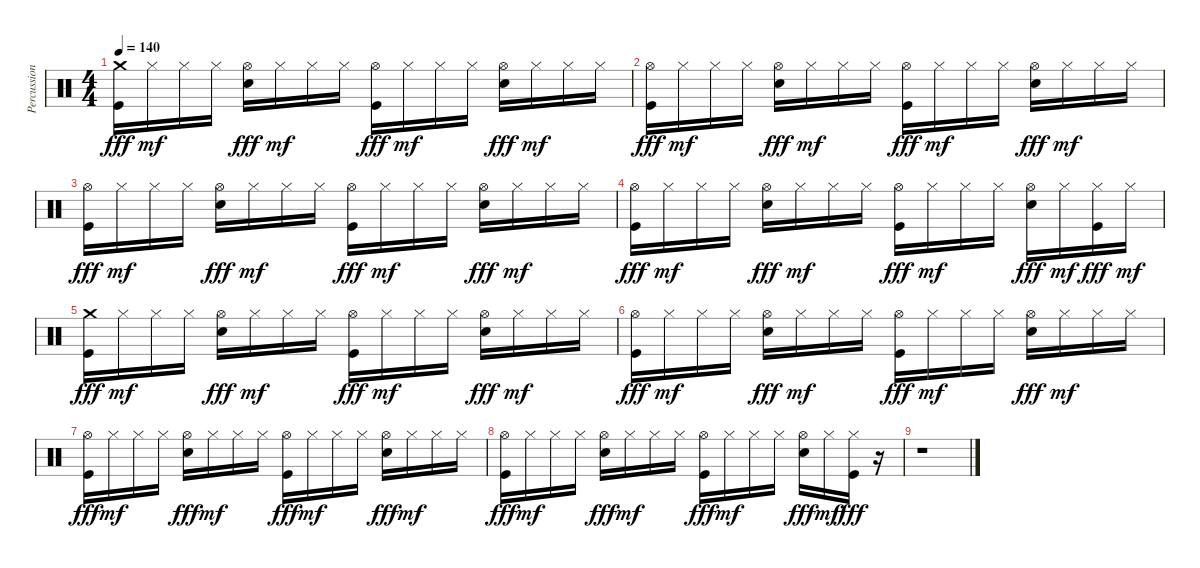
\track ("Percussions" "Percussion") {instrument percussion}
\staff {score}
\articulation defaults
\ts (4 4)
\tempo 140
\clef neutral
\ks c
("Crash medium (hit)" "Kick (hit)").16{dy fff} "Hi-Hat (closed)".16{dy mf} "Hi-Hat (closed)".16 "Hi-Hat (closed)".16 ("Hi-Hat (open)" "Electric Snare (hit)").16{dy fff} "Hi-Hat (closed)".16{dy mf} "Hi-Hat (closed)".16 "Hi-Hat (closed)".16 ("Hi-Hat (open)" "Kick (hit)").16{dy fff} "Hi-Hat (closed)".16{dy mf} "Hi-Hat (closed)".16 "Hi-Hat (closed)".16 ("Hi-Hat (open)" "Electric Snare (hit)").16{dy fff} "Hi-Hat (closed)".16{dy mf} "Hi-Hat (closed)".16 "Hi-Hat (closed)".16 |
("Hi-Hat (open)" "Kick (hit)").16{dy fff} "Hi-Hat (closed)".16{dy mf} "Hi-Hat (closed)".16 "Hi-Hat (closed)".16 ("Hi-Hat (open)" "Electric Snare (hit)").16{dy fff} "Hi-Hat (closed)".16{dy mf} "Hi-Hat (closed)".16 "Hi-Hat (closed)".16 ("Hi-Hat (open)" "Kick (hit)").16{dy fff} "Hi-Hat (closed)".16{dy mf} "Hi-Hat (closed)".16 "Hi-Hat (closed)".16 ("Hi-Hat (open)" "Electric Snare (hit)").16{dy fff} "Hi-Hat (closed)".16{dy mf} "Hi-Hat (closed)".16 "Hi-Hat (closed)".16 |
("Hi-Hat (open)" "Kick (hit)").16{dy fff} "Hi-Hat (closed)".16{dy mf} "Hi-Hat (closed)".16 "Hi-Hat (closed)".16 ("Hi-Hat (open)" "Electric Snare (hit)").16{dy fff} "Hi-Hat (closed)".16{dy mf} "Hi-Hat (closed)".16 "Hi-Hat (closed)".16 ("Hi-Hat (open)" "Kick (hit)").16{dy fff} "Hi-Hat (closed)".16{dy mf} "Hi-Hat (closed)".16 "Hi-Hat (closed)".16 ("Hi-Hat (open)" "Electric Snare (hit)").16{dy fff} "Hi-Hat (closed)".16{dy mf} "Hi-Hat (closed)".16 "Hi-Hat (closed)".16 |
("Hi-Hat (open)" "Kick (hit)").16{dy fff} "Hi-Hat (closed)".16{dy mf} "Hi-Hat (closed)".16 "Hi-Hat (closed)".16 ("Hi-Hat (open)" "Electric Snare (hit)").16{dy fff} "Hi-Hat (closed)".16{dy mf} "Hi-Hat (closed)".16 "Hi-Hat (closed)".16 ("Hi-Hat (open)" "Kick (hit)").16{dy fff} "Hi-Hat (closed)".16{dy mf} "Hi-Hat (closed)".16 "Hi-Hat (closed)".16 ("Hi-Hat (open)" "Electric Snare (hit)").16{dy fff} "Hi-Hat (closed)".16{dy mf} ("Hi-Hat (closed)" "Kick (hit)").16{dy fff} "Hi-Hat (closed)".16{dy mf} |
("Crash medium (hit)" "Kick (hit)").16{dy fff} "Hi-Hat (closed)".16{dy mf} "Hi-Hat (closed)".16 "Hi-Hat (closed)".16 ("Hi-Hat (open)" "Electric Snare (hit)").16{dy fff} "Hi-Hat (closed)".16{dy mf} "Hi-Hat (closed)".16 "Hi-Hat (closed)".16 ("Hi-Hat (open)" "Kick (hit)").16{dy fff} "Hi-Hat (closed)".16{dy mf} "Hi-Hat (closed)".16 "Hi-Hat (closed)".16 ("Hi-Hat (open)" "Electric Snare (hit)").16{dy fff} "Hi-Hat (closed)".16{dy mf} "Hi-Hat (closed)".16 "Hi-Hat (closed)".16 |
("Hi-Hat (open)" "Kick (hit)").16{dy fff} "Hi-Hat (closed)".16{dy mf} "Hi-Hat (closed)".16 "Hi-Hat (closed)".16 ("Hi-Hat (open)" "Electric Snare (hit)").16{dy fff} "Hi-Hat (closed)".16{dy mf} "Hi-Hat (closed)".16 "Hi-Hat (closed)".16 ("Hi-Hat (open)" "Kick (hit)").16{dy fff} "Hi-Hat (closed)".16{dy mf} "Hi-Hat (closed)".16 "Hi-Hat (closed)".16 ("Hi-Hat (open)" "Electric Snare (hit)").16{dy fff} "Hi-Hat (closed)".16{dy mf} "Hi-Hat (closed)".16 "Hi-Hat (closed)".16 |
("Hi-Hat (open)" "Kick (hit)").16{dy fff} "Hi-Hat (closed)".16{dy mf} "Hi-Hat (closed)".16 "Hi-Hat (closed)".16 ("Hi-Hat (open)" "Electric Snare (hit)").16{dy fff} "Hi-Hat (closed)".16{dy mf} "Hi-Hat (closed)".16 "Hi-Hat (closed)".16 ("Hi-Hat (open)" "Kick (hit)").16{dy fff} "Hi-Hat (closed)".16{dy mf} "Hi-Hat (closed)".16 "Hi-Hat (closed)".16 ("Hi-Hat (open)" "Electric Snare (hit)").16{dy fff} "Hi-Hat (closed)".16{dy mf} "Hi-Hat (closed)".16 "Hi-Hat (closed)".16 |
("Hi-Hat (open)" "Kick (hit)").16{dy fff} "Hi-Hat (closed)".16{dy mf} "Hi-Hat (closed)".16 "Hi-Hat (closed)".16 ("Hi-Hat (open)" "Electric Snare (hit)").16{dy fff} "Hi-Hat (closed)".16{dy mf} "Hi-Hat (closed)".16 "Hi-Hat (closed)".16 ("Hi-Hat (open)" "Kick (hit)").16{dy fff} "Hi-Hat (closed)".16{dy mf} "Hi-Hat (closed)".16 "Hi-Hat (closed)".16 ("Hi-Hat (open)" "Electric Snare (hit)").16{dy fff} "Hi-Hat (closed)".16{dy mf} ("Hi-Hat (closed)" "Kick (hit)").16{dy fff} r.16 |
r.1
